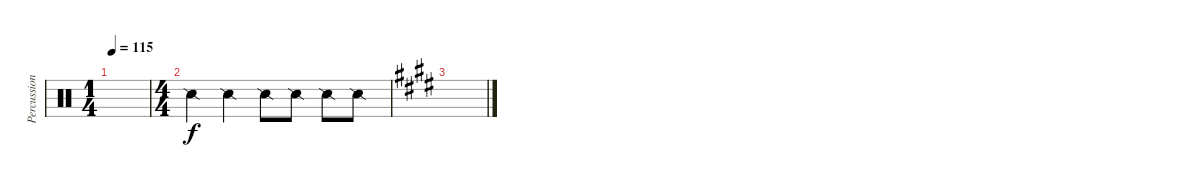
\track ("Percussion" "Percussion") {instrument percussion}
\staff {score}
\articulation defaults
\ts (1 4)
\tempo 115
\clef neutral
\ks c
|
\ts (4 4)
"Snare (side stick) 2".4 "Snare (side stick) 2".4 "Snare (side stick) 2".8 "Snare (side stick) 2".8 "Snare (side stick) 2".8 "Snare (side stick) 2".8 |
\ks c#minor
